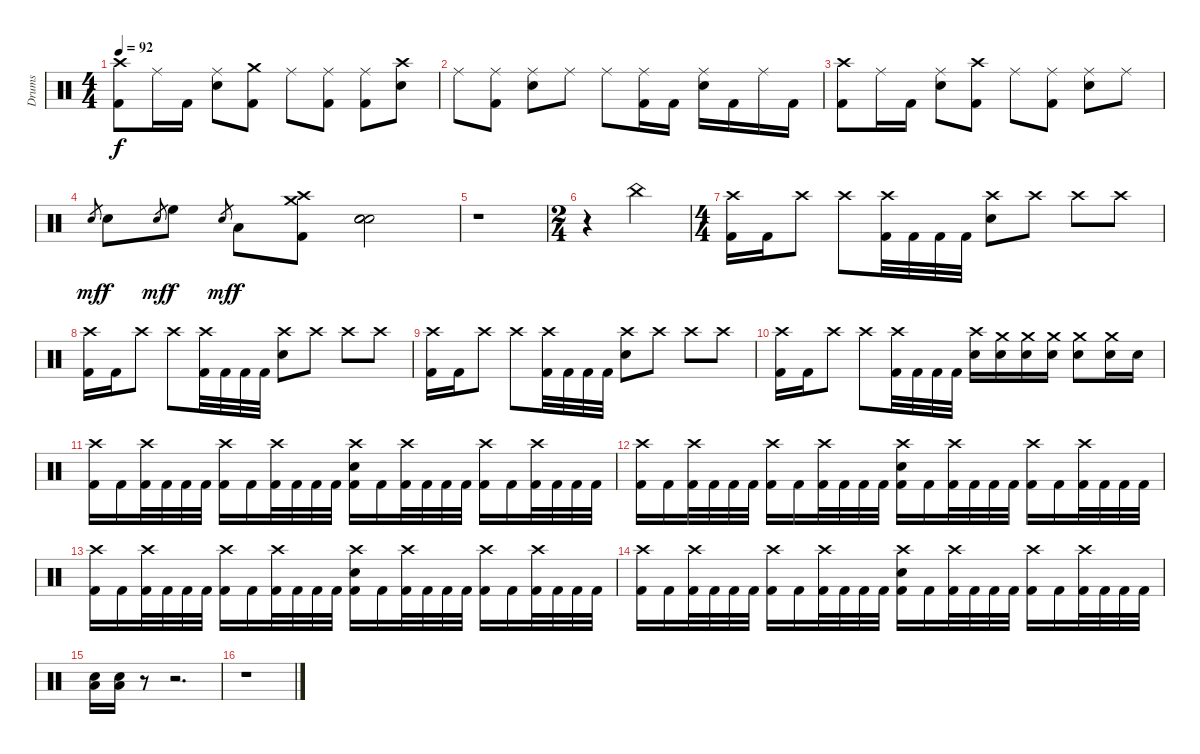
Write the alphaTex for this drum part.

\track ("Drums" "Drums") {instrument percussion}
\staff {score}
\articulation defaults
\ts (4 4)
\tempo 92
\clef neutral
\ks c
("Crash high (hit)" "Kick (hit) 2").8{dy f} "Ride (middle)".16 "Kick (hit) 2".16 ("Ride (middle)" "Snare (hit) 2").8 ("Crash medium (hit)" "Kick (hit) 2").8 "Ride (middle)".8 ("Ride (middle)" "Kick (hit) 2").8 ("Ride (middle)" "Kick (hit) 2").8 ("Crash high (hit)" "Snare (hit) 2").8 |
"Ride (middle)".8 ("Ride (middle)" "Kick (hit) 2").8 ("Ride (middle)" "Snare (hit) 2").8 "Ride (middle)".8 "Ride (middle)".8 ("Ride (middle)" "Kick (hit) 2").16 "Kick (hit) 2".16 ("Ride (middle)" "Snare (hit) 2").16 "Kick (hit) 2".16 "Ride (middle)".16 "Kick (hit) 2".16 |
("Crash high (hit)" "Kick (hit) 2").8 "Ride (middle)".16 "Kick (hit) 2".16 ("Ride (middle)" "Snare (hit) 2").8 ("Crash high (hit)" "Kick (hit) 2").8 "Ride (middle)".8 ("Ride (middle)" "Kick (hit) 2").8 ("Ride (middle)" "Snare (hit) 2").8 "Ride (middle)".8 |
"Snare (hit)".8{gr dy mf} "Snare (hit) 2".8{dy f} "Snare (hit)".8{gr dy mf} "High Floor Tom (hit)".8{dy f} "Snare (hit)".8{gr dy mf} "Low Tom (hit)".8{dy f} ("Crash medium (hit)" "Crash high (hit)" "Kick (hit) 2").8 ("Snare (hit)" "Snare (hit)" "Snare (hit)").2 |
r.1 |
\ts (2 4)
r.4 "China (hit)".4 |
\ts (4 4)
("Crash high (hit)" "Kick (hit) 2").16 "Kick (hit) 2".16 "Crash high (hit)".8 "Crash high (hit)".8 ("Crash high (hit)" "Kick (hit) 2").32 "Kick (hit) 2".32 "Kick (hit) 2".32 "Kick (hit) 2".32 ("Crash high (hit)" "Snare (hit) 2").8 "Crash high (hit)".8 "Crash high (hit)".8 "Crash high (hit)".8 |
("Crash high (hit)" "Kick (hit) 2").16 "Kick (hit) 2".16 "Crash high (hit)".8 "Crash high (hit)".8 ("Crash high (hit)" "Kick (hit) 2").32 "Kick (hit) 2".32 "Kick (hit) 2".32 "Kick (hit) 2".32 ("Crash high (hit)" "Snare (hit) 2").8 "Crash high (hit)".8 "Crash high (hit)".8 "Crash high (hit)".8 |
("Crash high (hit)" "Kick (hit) 2").16 "Kick (hit) 2".16 "Crash high (hit)".8 "Crash high (hit)".8 ("Crash high (hit)" "Kick (hit) 2").32 "Kick (hit) 2".32 "Kick (hit) 2".32 "Kick (hit) 2".32 ("Crash high (hit)" "Snare (hit) 2").8 "Crash high (hit)".8 "Crash high (hit)".8 "Crash high (hit)".8 |
("Crash high (hit)" "Kick (hit) 2").16 "Kick (hit) 2".16 "Crash high (hit)".8 "Crash high (hit)".8 ("Crash high (hit)" "Kick (hit) 2").32 "Kick (hit) 2".32 "Kick (hit) 2".32 "Kick (hit) 2".32 ("Crash high (hit)" "Snare (hit) 2").16 ("Crash medium (hit)" "Snare (hit) 2").16 ("Crash medium (hit)" "Snare (hit) 2").16 ("Crash medium (hit)" "Snare (hit) 2").16 ("Crash medium (hit)" "Snare (hit) 2").8 ("Crash medium (hit)" "Snare (hit) 2").16 "Snare (hit) 2".16 |
("Crash high (hit)" "Kick (hit) 2").16 "Kick (hit) 2".16 ("Crash high (hit)" "Kick (hit) 2").32 "Kick (hit) 2".32 "Kick (hit) 2".32 "Kick (hit) 2".32 ("Crash high (hit)" "Kick (hit) 2").16 "Kick (hit) 2".16 ("Crash high (hit)" "Kick (hit) 2").32 "Kick (hit) 2".32 "Kick (hit) 2".32 "Kick (hit) 2".32 ("Crash high (hit)" "Snare (hit) 2" "Kick (hit) 2").16 "Kick (hit) 2".16 ("Crash high (hit)" "Kick (hit) 2").32 "Kick (hit) 2".32 "Kick (hit) 2".32 "Kick (hit) 2".32 ("Crash high (hit)" "Kick (hit) 2").16 "Kick (hit) 2".16 ("Crash high (hit)" "Kick (hit) 2").32 "Kick (hit) 2".32 "Kick (hit) 2".32 "Kick (hit) 2".32 |
("Crash high (hit)" "Kick (hit) 2").16 "Kick (hit) 2".16 ("Crash high (hit)" "Kick (hit) 2").32 "Kick (hit) 2".32 "Kick (hit) 2".32 "Kick (hit) 2".32 ("Crash high (hit)" "Kick (hit) 2").16 "Kick (hit) 2".16 ("Crash high (hit)" "Kick (hit) 2").32 "Kick (hit) 2".32 "Kick (hit) 2".32 "Kick (hit) 2".32 ("Crash high (hit)" "Snare (hit) 2" "Kick (hit) 2").16 "Kick (hit) 2".16 ("Crash high (hit)" "Kick (hit) 2").32 "Kick (hit) 2".32 "Kick (hit) 2".32 "Kick (hit) 2".32 ("Crash high (hit)" "Kick (hit) 2").16 "Kick (hit) 2".16 ("Crash high (hit)" "Kick (hit) 2").32 "Kick (hit) 2".32 "Kick (hit) 2".32 "Kick (hit) 2".32 |
("Crash high (hit)" "Kick (hit) 2").16 "Kick (hit) 2".16 ("Crash high (hit)" "Kick (hit) 2").32 "Kick (hit) 2".32 "Kick (hit) 2".32 "Kick (hit) 2".32 ("Crash high (hit)" "Kick (hit) 2").16 "Kick (hit) 2".16 ("Crash high (hit)" "Kick (hit) 2").32 "Kick (hit) 2".32 "Kick (hit) 2".32 "Kick (hit) 2".32 ("Crash high (hit)" "Snare (hit) 2" "Kick (hit) 2").16 "Kick (hit) 2".16 ("Crash high (hit)" "Kick (hit) 2").32 "Kick (hit) 2".32 "Kick (hit) 2".32 "Kick (hit) 2".32 ("Crash high (hit)" "Kick (hit) 2").16 "Kick (hit) 2".16 ("Crash high (hit)" "Kick (hit) 2").32 "Kick (hit) 2".32 "Kick (hit) 2".32 "Kick (hit) 2".32 |
("Crash high (hit)" "Kick (hit) 2").16 "Kick (hit) 2".16 ("Crash high (hit)" "Kick (hit) 2").32 "Kick (hit) 2".32 "Kick (hit) 2".32 "Kick (hit) 2".32 ("Crash high (hit)" "Kick (hit) 2").16 "Kick (hit) 2".16 ("Crash high (hit)" "Kick (hit) 2").32 "Kick (hit) 2".32 "Kick (hit) 2".32 "Kick (hit) 2".32 ("Crash high (hit)" "Snare (hit) 2" "Kick (hit) 2").16 "Kick (hit) 2".16 ("Crash high (hit)" "Kick (hit) 2").32 "Kick (hit) 2".32 "Kick (hit) 2".32 "Kick (hit) 2".32 ("Crash high (hit)" "Kick (hit) 2").16 "Kick (hit) 2".16 ("Crash high (hit)" "Kick (hit) 2").32 "Kick (hit) 2".32 "Kick (hit) 2".32 "Kick (hit) 2".32 |
("Low Floor Tom (hit)" "Snare (hit) 2").16 ("Low Floor Tom (hit)" "Snare (hit) 2").16 r.8 r.2{d} |
r.1
